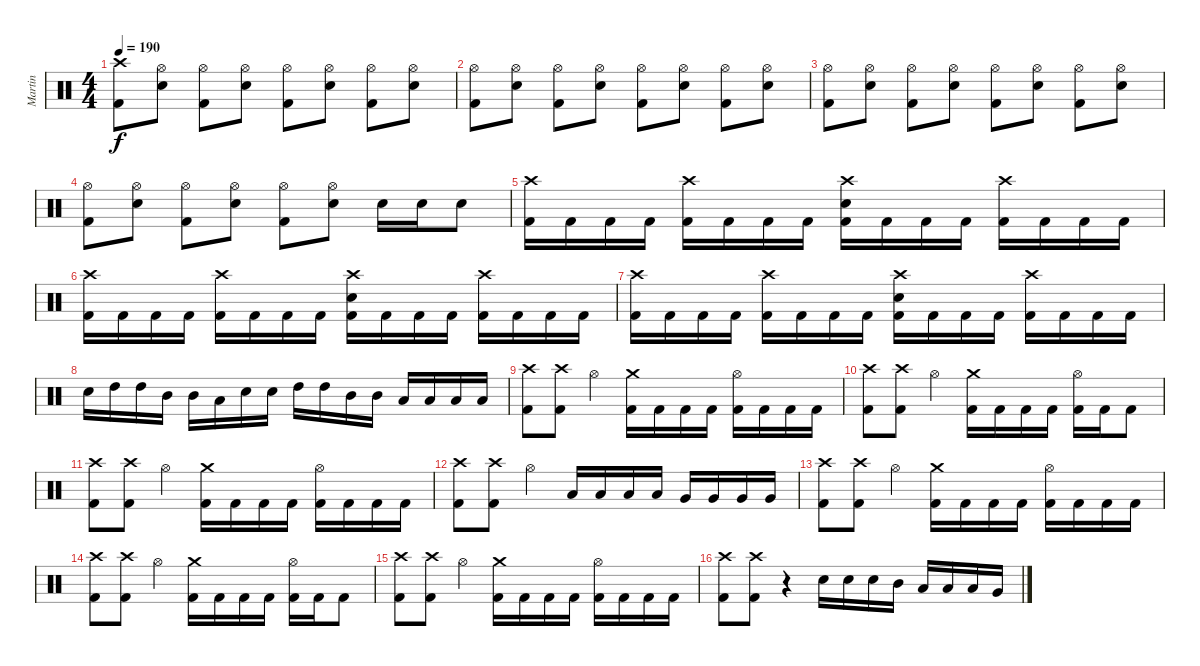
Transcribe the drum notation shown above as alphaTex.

\track ("Martin" "Martin") {instrument percussion}
\staff {score}
\articulation defaults
\ts (4 4)
\tempo 190
\clef neutral
\ks c
("Crash high (hit)" "Kick (hit) 2").8{dy f} ("Hi-Hat (open)" "Snare (hit) 2").8 ("Hi-Hat (open)" "Kick (hit) 2").8 ("Hi-Hat (open)" "Snare (hit) 2").8 ("Hi-Hat (open)" "Kick (hit) 2").8 ("Hi-Hat (open)" "Snare (hit) 2").8 ("Hi-Hat (open)" "Kick (hit) 2").8 ("Hi-Hat (open)" "Snare (hit) 2").8 |
("Hi-Hat (open)" "Kick (hit) 2").8 ("Hi-Hat (open)" "Snare (hit) 2").8 ("Hi-Hat (open)" "Kick (hit) 2").8 ("Hi-Hat (open)" "Snare (hit) 2").8 ("Hi-Hat (open)" "Kick (hit) 2").8 ("Hi-Hat (open)" "Snare (hit) 2").8 ("Hi-Hat (open)" "Kick (hit) 2").8 ("Hi-Hat (open)" "Snare (hit) 2").8 |
("Hi-Hat (open)" "Kick (hit) 2").8 ("Hi-Hat (open)" "Snare (hit) 2").8 ("Hi-Hat (open)" "Kick (hit) 2").8 ("Hi-Hat (open)" "Snare (hit) 2").8 ("Hi-Hat (open)" "Kick (hit) 2").8 ("Hi-Hat (open)" "Snare (hit) 2").8 ("Hi-Hat (open)" "Kick (hit) 2").8 ("Hi-Hat (open)" "Snare (hit) 2").8 |
("Hi-Hat (open)" "Kick (hit) 2").8 ("Hi-Hat (open)" "Snare (hit) 2").8 ("Hi-Hat (open)" "Kick (hit) 2").8 ("Hi-Hat (open)" "Snare (hit) 2").8 ("Hi-Hat (open)" "Kick (hit) 2").8 ("Hi-Hat (open)" "Snare (hit) 2").8 "Snare (hit) 2".16 "Snare (hit) 2".16 "Snare (hit) 2".8 |
("Crash high (hit)" "Kick (hit) 2").16 "Kick (hit) 2".16 "Kick (hit) 2".16 "Kick (hit) 2".16 ("Crash high (hit)" "Kick (hit) 2").16 "Kick (hit) 2".16 "Kick (hit) 2".16 "Kick (hit) 2".16 ("Crash high (hit)" "Snare (hit) 2" "Kick (hit) 2").16 "Kick (hit) 2".16 "Kick (hit) 2".16 "Kick (hit) 2".16 ("Crash high (hit)" "Kick (hit) 2").16 "Kick (hit) 2".16 "Kick (hit) 2".16 "Kick (hit) 2".16 |
("Crash high (hit)" "Kick (hit) 2").16 "Kick (hit) 2".16 "Kick (hit) 2".16 "Kick (hit) 2".16 ("Crash high (hit)" "Kick (hit) 2").16 "Kick (hit) 2".16 "Kick (hit) 2".16 "Kick (hit) 2".16 ("Crash high (hit)" "Snare (hit) 2" "Kick (hit) 2").16 "Kick (hit) 2".16 "Kick (hit) 2".16 "Kick (hit) 2".16 ("Crash high (hit)" "Kick (hit) 2").16 "Kick (hit) 2".16 "Kick (hit) 2".16 "Kick (hit) 2".16 |
("Crash high (hit)" "Kick (hit) 2").16 "Kick (hit) 2".16 "Kick (hit) 2".16 "Kick (hit) 2".16 ("Crash high (hit)" "Kick (hit) 2").16 "Kick (hit) 2".16 "Kick (hit) 2".16 "Kick (hit) 2".16 ("Crash high (hit)" "Snare (hit) 2" "Kick (hit) 2").16 "Kick (hit) 2".16 "Kick (hit) 2".16 "Kick (hit) 2".16 ("Crash high (hit)" "Kick (hit) 2").16 "Kick (hit) 2".16 "Kick (hit) 2".16 "Kick (hit) 2".16 |
"Snare (hit) 2".16 "High Tom (hit)".16 "High Tom (hit)".16 "Mid Tom (hit)".16 "Mid Tom (hit)".16 "Low Tom (hit)".16 "Snare (hit) 2".16 "Snare (hit) 2".16 "High Tom (hit)".16 "High Tom (hit)".16 "Mid Tom (hit)".16 "Mid Tom (hit)".16 "Low Tom (hit)".16 "Low Tom (hit)".16 "Low Tom (hit)".16 "Low Tom (hit)".16 |
("Crash high (hit)" "Kick (hit) 2").8 ("Crash high (hit)" "Kick (hit) 2").8 "Hi-Hat (open)".4 ("Crash medium (hit)" "Kick (hit) 2").16 "Kick (hit) 2".16 "Kick (hit) 2".16 "Kick (hit) 2".16 ("Hi-Hat (open)" "Kick (hit) 2").16 "Kick (hit) 2".16 "Kick (hit) 2".16 "Kick (hit) 2".16 |
("Crash high (hit)" "Kick (hit) 2").8 ("Crash high (hit)" "Kick (hit) 2").8 "Hi-Hat (open)".4 ("Crash medium (hit)" "Kick (hit) 2").16 "Kick (hit) 2".16 "Kick (hit) 2".16 "Kick (hit) 2".16 ("Hi-Hat (open)" "Kick (hit) 2").16 "Kick (hit) 2".16 "Kick (hit) 2".8 |
("Crash high (hit)" "Kick (hit) 2").8 ("Crash high (hit)" "Kick (hit) 2").8 "Hi-Hat (open)".4 ("Crash medium (hit)" "Kick (hit) 2").16 "Kick (hit) 2".16 "Kick (hit) 2".16 "Kick (hit) 2".16 ("Hi-Hat (open)" "Kick (hit) 2").16 "Kick (hit) 2".16 "Kick (hit) 2".16 "Kick (hit) 2".16 |
("Crash high (hit)" "Kick (hit) 2").8 ("Crash high (hit)" "Kick (hit) 2").8 "Hi-Hat (open)".4 "Low Tom (hit)".16 "Low Tom (hit)".16 "Low Tom (hit)".16 "Low Tom (hit)".16 "Very Low Tom (hit)".16 "Very Low Tom (hit)".16 "Very Low Tom (hit)".16 "Very Low Tom (hit)".16 |
("Crash high (hit)" "Kick (hit) 2").8 ("Crash high (hit)" "Kick (hit) 2").8 "Hi-Hat (open)".4 ("Crash medium (hit)" "Kick (hit) 2").16 "Kick (hit) 2".16 "Kick (hit) 2".16 "Kick (hit) 2".16 ("Hi-Hat (open)" "Kick (hit) 2").16 "Kick (hit) 2".16 "Kick (hit) 2".16 "Kick (hit) 2".16 |
("Crash high (hit)" "Kick (hit) 2").8 ("Crash high (hit)" "Kick (hit) 2").8 "Hi-Hat (open)".4 ("Crash medium (hit)" "Kick (hit) 2").16 "Kick (hit) 2".16 "Kick (hit) 2".16 "Kick (hit) 2".16 ("Hi-Hat (open)" "Kick (hit) 2").16 "Kick (hit) 2".16 "Kick (hit) 2".8 |
("Crash high (hit)" "Kick (hit) 2").8 ("Crash high (hit)" "Kick (hit) 2").8 "Hi-Hat (open)".4 ("Crash medium (hit)" "Kick (hit) 2").16 "Kick (hit) 2".16 "Kick (hit) 2".16 "Kick (hit) 2".16 ("Hi-Hat (open)" "Kick (hit) 2").16 "Kick (hit) 2".16 "Kick (hit) 2".16 "Kick (hit) 2".16 |
("Crash high (hit)" "Kick (hit) 2").8 ("Crash high (hit)" "Kick (hit) 2").8 r.4 "Snare (hit) 2".16 "Snare (hit) 2".16 "Snare (hit) 2".16 "Mid Tom (hit)".16 "Low Tom (hit)".16 "Low Tom (hit)".16 "Low Tom (hit)".16 "Very Low Tom (hit)".16
